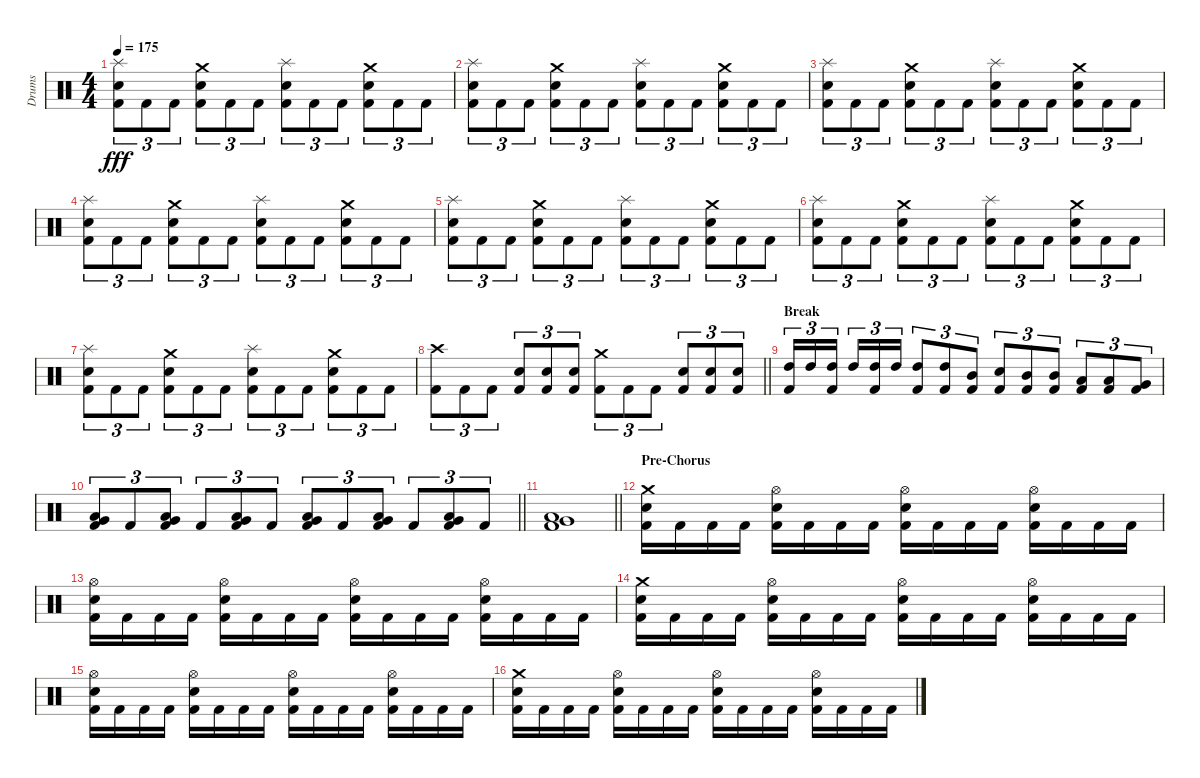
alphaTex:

\track ("Drums" "Drums") {instrument percussion}
\staff {score}
\articulation defaults
\ts (4 4)
\tempo 175
\clef neutral
\ks c
("Splash (hit)" "Electric Snare (hit)" "Kick (hit) 2").8{tu (3 2) dy fff} "Kick (hit) 2".8{tu (3 2)} "Kick (hit) 2".8{tu (3 2)} ("Crash medium (hit)" "Electric Snare (hit)" "Kick (hit) 2").8{tu (3 2)} "Kick (hit) 2".8{tu (3 2)} "Kick (hit) 2".8{tu (3 2)} ("Splash (hit)" "Electric Snare (hit)" "Kick (hit) 2").8{tu (3 2)} "Kick (hit) 2".8{tu (3 2)} "Kick (hit) 2".8{tu (3 2)} ("Crash medium (hit)" "Electric Snare (hit)" "Kick (hit) 2").8{tu (3 2)} "Kick (hit) 2".8{tu (3 2)} "Kick (hit) 2".8{tu (3 2)} |
("Splash (hit)" "Electric Snare (hit)" "Kick (hit) 2").8{tu (3 2)} "Kick (hit) 2".8{tu (3 2)} "Kick (hit) 2".8{tu (3 2)} ("Crash medium (hit)" "Electric Snare (hit)" "Kick (hit) 2").8{tu (3 2)} "Kick (hit) 2".8{tu (3 2)} "Kick (hit) 2".8{tu (3 2)} ("Splash (hit)" "Electric Snare (hit)" "Kick (hit) 2").8{tu (3 2)} "Kick (hit) 2".8{tu (3 2)} "Kick (hit) 2".8{tu (3 2)} ("Crash medium (hit)" "Electric Snare (hit)" "Kick (hit) 2").8{tu (3 2)} "Kick (hit) 2".8{tu (3 2)} "Kick (hit) 2".8{tu (3 2)} |
("Splash (hit)" "Electric Snare (hit)" "Kick (hit) 2").8{tu (3 2)} "Kick (hit) 2".8{tu (3 2)} "Kick (hit) 2".8{tu (3 2)} ("Crash medium (hit)" "Electric Snare (hit)" "Kick (hit) 2").8{tu (3 2)} "Kick (hit) 2".8{tu (3 2)} "Kick (hit) 2".8{tu (3 2)} ("Splash (hit)" "Electric Snare (hit)" "Kick (hit) 2").8{tu (3 2)} "Kick (hit) 2".8{tu (3 2)} "Kick (hit) 2".8{tu (3 2)} ("Crash medium (hit)" "Electric Snare (hit)" "Kick (hit) 2").8{tu (3 2)} "Kick (hit) 2".8{tu (3 2)} "Kick (hit) 2".8{tu (3 2)} |
("Splash (hit)" "Electric Snare (hit)" "Kick (hit) 2").8{tu (3 2)} "Kick (hit) 2".8{tu (3 2)} "Kick (hit) 2".8{tu (3 2)} ("Crash medium (hit)" "Electric Snare (hit)" "Kick (hit) 2").8{tu (3 2)} "Kick (hit) 2".8{tu (3 2)} "Kick (hit) 2".8{tu (3 2)} ("Splash (hit)" "Electric Snare (hit)" "Kick (hit) 2").8{tu (3 2)} "Kick (hit) 2".8{tu (3 2)} "Kick (hit) 2".8{tu (3 2)} ("Crash medium (hit)" "Electric Snare (hit)" "Kick (hit) 2").8{tu (3 2)} "Kick (hit) 2".8{tu (3 2)} "Kick (hit) 2".8{tu (3 2)} |
("Splash (hit)" "Electric Snare (hit)" "Kick (hit) 2").8{tu (3 2)} "Kick (hit) 2".8{tu (3 2)} "Kick (hit) 2".8{tu (3 2)} ("Crash medium (hit)" "Electric Snare (hit)" "Kick (hit) 2").8{tu (3 2)} "Kick (hit) 2".8{tu (3 2)} "Kick (hit) 2".8{tu (3 2)} ("Splash (hit)" "Electric Snare (hit)" "Kick (hit) 2").8{tu (3 2)} "Kick (hit) 2".8{tu (3 2)} "Kick (hit) 2".8{tu (3 2)} ("Crash medium (hit)" "Electric Snare (hit)" "Kick (hit) 2").8{tu (3 2)} "Kick (hit) 2".8{tu (3 2)} "Kick (hit) 2".8{tu (3 2)} |
("Splash (hit)" "Electric Snare (hit)" "Kick (hit) 2").8{tu (3 2)} "Kick (hit) 2".8{tu (3 2)} "Kick (hit) 2".8{tu (3 2)} ("Crash medium (hit)" "Electric Snare (hit)" "Kick (hit) 2").8{tu (3 2)} "Kick (hit) 2".8{tu (3 2)} "Kick (hit) 2".8{tu (3 2)} ("Splash (hit)" "Electric Snare (hit)" "Kick (hit) 2").8{tu (3 2)} "Kick (hit) 2".8{tu (3 2)} "Kick (hit) 2".8{tu (3 2)} ("Crash medium (hit)" "Electric Snare (hit)" "Kick (hit) 2").8{tu (3 2)} "Kick (hit) 2".8{tu (3 2)} "Kick (hit) 2".8{tu (3 2)} |
("Splash (hit)" "Electric Snare (hit)" "Kick (hit) 2").8{tu (3 2)} "Kick (hit) 2".8{tu (3 2)} "Kick (hit) 2".8{tu (3 2)} ("Crash medium (hit)" "Electric Snare (hit)" "Kick (hit) 2").8{tu (3 2)} "Kick (hit) 2".8{tu (3 2)} "Kick (hit) 2".8{tu (3 2)} ("Splash (hit)" "Electric Snare (hit)" "Kick (hit) 2").8{tu (3 2)} "Kick (hit) 2".8{tu (3 2)} "Kick (hit) 2".8{tu (3 2)} ("Crash medium (hit)" "Electric Snare (hit)" "Kick (hit) 2").8{tu (3 2)} "Kick (hit) 2".8{tu (3 2)} "Kick (hit) 2".8{tu (3 2)} |
\barLineRight lightlight
("Crash high (hit)" "Kick (hit) 2").8{tu (3 2)} "Kick (hit) 2".8{tu (3 2)} "Kick (hit) 2".8{tu (3 2)} ("Electric Snare (hit)" "Kick (hit) 2").8{tu (3 2)} ("Electric Snare (hit)" "Kick (hit) 2").8{tu (3 2)} ("Electric Snare (hit)" "Kick (hit) 2").8{tu (3 2)} ("Crash medium (hit)" "Kick (hit) 2").8{tu (3 2)} "Kick (hit) 2".8{tu (3 2)} "Kick (hit) 2".8{tu (3 2)} ("Electric Snare (hit)" "Kick (hit) 2").8{tu (3 2)} ("Electric Snare (hit)" "Kick (hit) 2").8{tu (3 2)} ("Electric Snare (hit)" "Kick (hit) 2").8{tu (3 2)} |
\section ("" "Break")
("High Tom (hit)" "Kick (hit) 2").16{tu (3 2)} "High Tom (hit)".16{tu (3 2)} ("High Tom (hit)" "Kick (hit) 2").16{tu (3 2) beam splitsecondary} "High Tom (hit)".16{tu (3 2)} ("High Tom (hit)" "Kick (hit) 2").16{tu (3 2)} "High Tom (hit)".16{tu (3 2)} ("High Tom (hit)" "Kick (hit) 2").8{tu (3 2)} ("High Tom (hit)" "Kick (hit) 2").8{tu (3 2)} ("Mid Tom (hit)" "Kick (hit) 2").8{tu (3 2)} ("Electric Snare (hit)" "Kick (hit) 2").8{tu (3 2)} ("Mid Tom (hit)" "Kick (hit) 2").8{tu (3 2)} ("Mid Tom (hit)" "Kick (hit) 2").8{tu (3 2)} ("Low Tom (hit)" "Kick (hit) 2").8{tu (3 2)} ("Low Tom (hit)" "Kick (hit) 2").8{tu (3 2)} ("Very Low Tom (hit)" "Kick (hit) 2").8{tu (3 2)} |
\barLineRight lightlight
("Very Low Tom (hit)" "Low Floor Tom (hit)" "Kick (hit) 2").8{tu (3 2)} "Kick (hit) 2".8{tu (3 2)} ("Very Low Tom (hit)" "Low Floor Tom (hit)" "Kick (hit) 2").8{tu (3 2)} "Kick (hit) 2".8{tu (3 2)} ("Very Low Tom (hit)" "Low Floor Tom (hit)" "Kick (hit) 2").8{tu (3 2)} "Kick (hit) 2".8{tu (3 2)} ("Very Low Tom (hit)" "Low Floor Tom (hit)" "Kick (hit) 2").8{tu (3 2)} "Kick (hit) 2".8{tu (3 2)} ("Very Low Tom (hit)" "Low Floor Tom (hit)" "Kick (hit) 2").8{tu (3 2)} "Kick (hit) 2".8{tu (3 2)} ("Very Low Tom (hit)" "Low Floor Tom (hit)" "Kick (hit) 2").8{tu (3 2)} "Kick (hit) 2".8{tu (3 2)} |
\barLineRight lightlight
("Very Low Tom (hit)" "Low Floor Tom (hit)" "Kick (hit) 2").1 |
\section ("" "Pre-Chorus")
("Crash medium (hit)" "Electric Snare (hit)" "Kick (hit) 2").16 "Kick (hit) 2".16 "Kick (hit) 2".16 "Kick (hit) 2".16 ("Hi-Hat (open)" "Electric Snare (hit)" "Kick (hit) 2").16 "Kick (hit) 2".16 "Kick (hit) 2".16 "Kick (hit) 2".16 ("Hi-Hat (open)" "Electric Snare (hit)" "Kick (hit) 2").16 "Kick (hit) 2".16 "Kick (hit) 2".16 "Kick (hit) 2".16 ("Hi-Hat (open)" "Electric Snare (hit)" "Kick (hit) 2").16 "Kick (hit) 2".16 "Kick (hit) 2".16 "Kick (hit) 2".16 |
("Hi-Hat (open)" "Electric Snare (hit)" "Kick (hit) 2").16 "Kick (hit) 2".16 "Kick (hit) 2".16 "Kick (hit) 2".16 ("Hi-Hat (open)" "Electric Snare (hit)" "Kick (hit) 2").16 "Kick (hit) 2".16 "Kick (hit) 2".16 "Kick (hit) 2".16 ("Hi-Hat (open)" "Electric Snare (hit)" "Kick (hit) 2").16 "Kick (hit) 2".16 "Kick (hit) 2".16 "Kick (hit) 2".16 ("Hi-Hat (open)" "Electric Snare (hit)" "Kick (hit) 2").16 "Kick (hit) 2".16 "Kick (hit) 2".16 "Kick (hit) 2".16 |
("Crash medium (hit)" "Electric Snare (hit)" "Kick (hit) 2").16 "Kick (hit) 2".16 "Kick (hit) 2".16 "Kick (hit) 2".16 ("Hi-Hat (open)" "Electric Snare (hit)" "Kick (hit) 2").16 "Kick (hit) 2".16 "Kick (hit) 2".16 "Kick (hit) 2".16 ("Hi-Hat (open)" "Electric Snare (hit)" "Kick (hit) 2").16 "Kick (hit) 2".16 "Kick (hit) 2".16 "Kick (hit) 2".16 ("Hi-Hat (open)" "Electric Snare (hit)" "Kick (hit) 2").16 "Kick (hit) 2".16 "Kick (hit) 2".16 "Kick (hit) 2".16 |
("Hi-Hat (open)" "Electric Snare (hit)" "Kick (hit) 2").16 "Kick (hit) 2".16 "Kick (hit) 2".16 "Kick (hit) 2".16 ("Hi-Hat (open)" "Electric Snare (hit)" "Kick (hit) 2").16 "Kick (hit) 2".16 "Kick (hit) 2".16 "Kick (hit) 2".16 ("Hi-Hat (open)" "Electric Snare (hit)" "Kick (hit) 2").16 "Kick (hit) 2".16 "Kick (hit) 2".16 "Kick (hit) 2".16 ("Hi-Hat (open)" "Electric Snare (hit)" "Kick (hit) 2").16 "Kick (hit) 2".16 "Kick (hit) 2".16 "Kick (hit) 2".16 |
("Crash medium (hit)" "Electric Snare (hit)" "Kick (hit) 2").16 "Kick (hit) 2".16 "Kick (hit) 2".16 "Kick (hit) 2".16 ("Hi-Hat (open)" "Electric Snare (hit)" "Kick (hit) 2").16 "Kick (hit) 2".16 "Kick (hit) 2".16 "Kick (hit) 2".16 ("Hi-Hat (open)" "Electric Snare (hit)" "Kick (hit) 2").16 "Kick (hit) 2".16 "Kick (hit) 2".16 "Kick (hit) 2".16 ("Hi-Hat (open)" "Electric Snare (hit)" "Kick (hit) 2").16 "Kick (hit) 2".16 "Kick (hit) 2".16 "Kick (hit) 2".16
